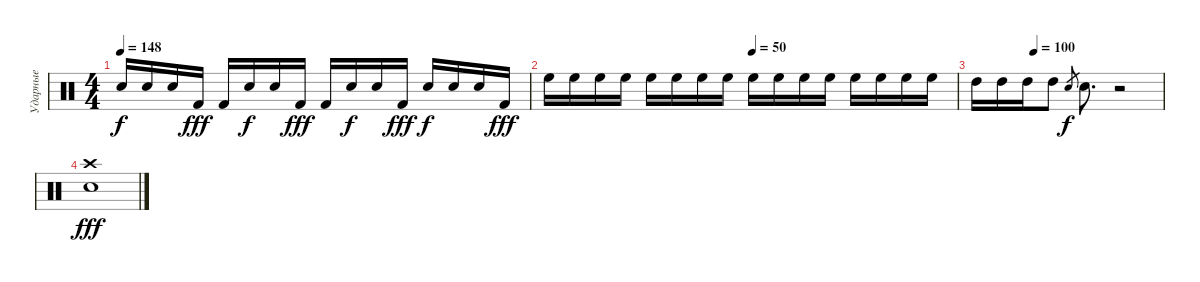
\track ("Ударные" "Ударные") {instrument percussion}
\staff {score}
\articulation defaults
\ts (4 4)
\tempo 148
\clef neutral
\ks c "Snare (hit) 2".16{dy f} "Snare (hit) 2".16 "Snare (hit) 2".16 "Kick (hit) 2".16{dy fff} "Kick (hit) 2".16 "Snare (hit) 2".16{dy f} "Snare (hit) 2".16 "Kick (hit) 2".16{dy fff} "Kick (hit) 2".16 "Snare (hit) 2".16{dy f} "Snare (hit) 2".16 "Kick (hit) 2".16{dy fff} "Snare (hit) 2".16{dy f} "Snare (hit) 2".16 "Snare (hit) 2".16 "Kick (hit) 2".16{dy fff}
|
\tempo (50 0.5)
"High Floor Tom (hit)".16 "High Floor Tom (hit)".16 "High Floor Tom (hit)".16 "High Floor Tom (hit)".16 "High Floor Tom (hit)".16 "High Floor Tom (hit)".16 "High Floor Tom (hit)".16 "High Floor Tom (hit)".16 "High Floor Tom (hit)".16 "High Floor Tom (hit)".16 "High Floor Tom (hit)".16 "High Floor Tom (hit)".16 "High Floor Tom (hit)".16 "High Floor Tom (hit)".16 "High Floor Tom (hit)".16 "High Floor Tom (hit)".16 |
\tempo (100 0.3125)
"High Tom (hit)".16 "High Tom (hit)".16 "High Tom (hit)".16 "High Tom (hit)".8 "Snare (hit) 2".8{gr dy f} "Snare (hit) 2".8{d} r.2 |
("Snare (hit) 2" "Crash high (hit)").1{dy fff}
